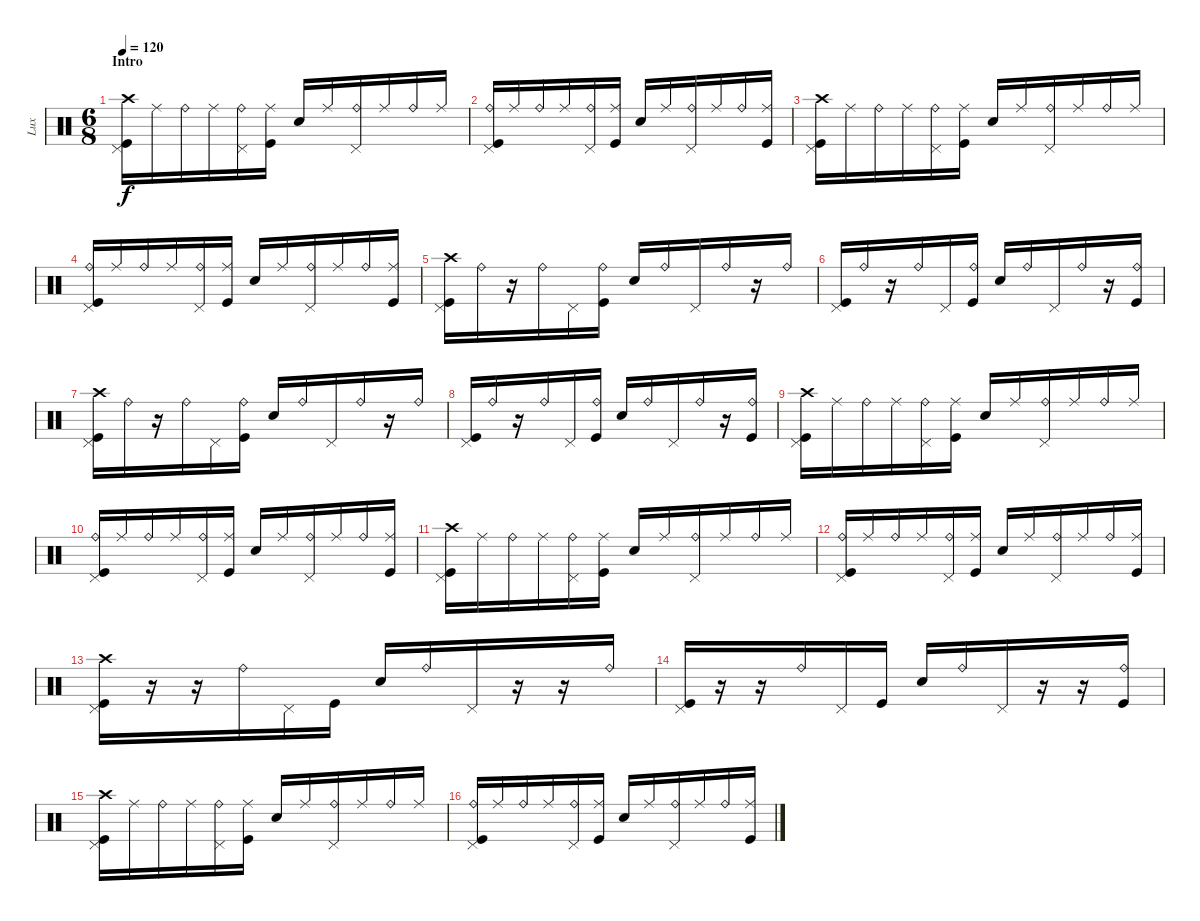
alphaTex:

\track ("Lux" "Lux") {solo instrument percussion}
\staff {score}
\articulation defaults
\ts (6 8)
\section ("" "Intro")
\tempo 120
\clef neutral
\ks c
("Crash high (hit)" "Pedal Hi-Hat (hit)" "Kick (hit)").16{dy f} "Ride (middle)".16 "Ride (bell)".16 "Ride (middle)".16 ("Ride (bell)" "Pedal Hi-Hat (hit)").16 ("Ride (middle)" "Kick (hit)").16 "Snare (hit) 2".16 "Ride (middle)".16 ("Ride (bell)" "Pedal Hi-Hat (hit)").16 "Ride (middle)".16 "Ride (bell)".16 "Ride (middle)".16 |
("Ride (bell)" "Pedal Hi-Hat (hit)" "Kick (hit)").16 "Ride (middle)".16 "Ride (bell)".16 "Ride (middle)".16 ("Ride (bell)" "Pedal Hi-Hat (hit)").16 ("Ride (middle)" "Kick (hit)").16 "Snare (hit) 2".16 "Ride (middle)".16 ("Ride (bell)" "Pedal Hi-Hat (hit)").16 "Ride (middle)".16 "Ride (bell)".16 ("Ride (middle)" "Kick (hit)").16 |
("Crash high (hit)" "Pedal Hi-Hat (hit)" "Kick (hit)").16 "Ride (middle)".16 "Ride (bell)".16 "Ride (middle)".16 ("Ride (bell)" "Pedal Hi-Hat (hit)").16 ("Ride (middle)" "Kick (hit)").16 "Snare (hit) 2".16 "Ride (middle)".16 ("Ride (bell)" "Pedal Hi-Hat (hit)").16 "Ride (middle)".16 "Ride (bell)".16 "Ride (middle)".16 |
("Ride (bell)" "Pedal Hi-Hat (hit)" "Kick (hit)").16 "Ride (middle)".16 "Ride (bell)".16 "Ride (middle)".16 ("Ride (bell)" "Pedal Hi-Hat (hit)").16 ("Ride (middle)" "Kick (hit)").16 "Snare (hit) 2".16 "Ride (middle)".16 ("Ride (bell)" "Pedal Hi-Hat (hit)").16 "Ride (middle)".16 "Ride (bell)".16 ("Ride (middle)" "Kick (hit)").16 |
("Crash high (hit)" "Pedal Hi-Hat (hit)" "Kick (hit)").16 "Ride (bell)".16 r.16 "Ride (bell)".16 "Pedal Hi-Hat (hit)".16 ("Ride (bell)" "Kick (hit)").16 "Snare (hit) 2".16 "Ride (bell)".16 "Pedal Hi-Hat (hit)".16 "Ride (bell)".16 r.16 "Ride (bell)".16 |
("Pedal Hi-Hat (hit)" "Kick (hit)").16 "Ride (bell)".16 r.16 "Ride (bell)".16 "Pedal Hi-Hat (hit)".16 ("Ride (bell)" "Kick (hit)").16 "Snare (hit) 2".16 "Ride (bell)".16 "Pedal Hi-Hat (hit)".16 "Ride (bell)".16 r.16 ("Ride (bell)" "Kick (hit)").16 |
("Crash high (hit)" "Pedal Hi-Hat (hit)" "Kick (hit)").16 "Ride (bell)".16 r.16 "Ride (bell)".16 "Pedal Hi-Hat (hit)".16 ("Ride (bell)" "Kick (hit)").16 "Snare (hit) 2".16 "Ride (bell)".16 "Pedal Hi-Hat (hit)".16 "Ride (bell)".16 r.16 "Ride (bell)".16 |
("Pedal Hi-Hat (hit)" "Kick (hit)").16 "Ride (bell)".16 r.16 "Ride (bell)".16 "Pedal Hi-Hat (hit)".16 ("Ride (bell)" "Kick (hit)").16 "Snare (hit) 2".16 "Ride (bell)".16 "Pedal Hi-Hat (hit)".16 "Ride (bell)".16 r.16 ("Ride (bell)" "Kick (hit)").16 |
("Crash high (hit)" "Pedal Hi-Hat (hit)" "Kick (hit)").16 "Ride (middle)".16 "Ride (bell)".16 "Ride (middle)".16 ("Ride (bell)" "Pedal Hi-Hat (hit)").16 ("Ride (middle)" "Kick (hit)").16 "Snare (hit) 2".16 "Ride (middle)".16 ("Ride (bell)" "Pedal Hi-Hat (hit)").16 "Ride (middle)".16 "Ride (bell)".16 "Ride (middle)".16 |
("Ride (bell)" "Pedal Hi-Hat (hit)" "Kick (hit)").16 "Ride (middle)".16 "Ride (bell)".16 "Ride (middle)".16 ("Ride (bell)" "Pedal Hi-Hat (hit)").16 ("Ride (middle)" "Kick (hit)").16 "Snare (hit) 2".16 "Ride (middle)".16 ("Ride (bell)" "Pedal Hi-Hat (hit)").16 "Ride (middle)".16 "Ride (bell)".16 ("Ride (middle)" "Kick (hit)").16 |
("Crash high (hit)" "Pedal Hi-Hat (hit)" "Kick (hit)").16 "Ride (middle)".16 "Ride (bell)".16 "Ride (middle)".16 ("Ride (bell)" "Pedal Hi-Hat (hit)").16 ("Ride (middle)" "Kick (hit)").16 "Snare (hit) 2".16 "Ride (middle)".16 ("Ride (bell)" "Pedal Hi-Hat (hit)").16 "Ride (middle)".16 "Ride (bell)".16 "Ride (middle)".16 |
("Ride (bell)" "Pedal Hi-Hat (hit)" "Kick (hit)").16 "Ride (middle)".16 "Ride (bell)".16 "Ride (middle)".16 ("Ride (bell)" "Pedal Hi-Hat (hit)").16 ("Ride (middle)" "Kick (hit)").16 "Snare (hit) 2".16 "Ride (middle)".16 ("Ride (bell)" "Pedal Hi-Hat (hit)").16 "Ride (middle)".16 "Ride (bell)".16 ("Ride (middle)" "Kick (hit)").16 |
("Crash high (hit)" "Pedal Hi-Hat (hit)" "Kick (hit)").16 r.16 r.16 "Ride (bell)".16 "Pedal Hi-Hat (hit)".16 "Kick (hit)".16 "Snare (hit) 2".16 "Ride (bell)".16 "Pedal Hi-Hat (hit)".16 r.16 r.16 "Ride (bell)".16 |
("Pedal Hi-Hat (hit)" "Kick (hit)").16 r.16 r.16 "Ride (bell)".16 "Pedal Hi-Hat (hit)".16 "Kick (hit)".16 "Snare (hit) 2".16 "Ride (bell)".16 "Pedal Hi-Hat (hit)".16 r.16 r.16 ("Ride (bell)" "Kick (hit)").16 |
("Crash high (hit)" "Pedal Hi-Hat (hit)" "Kick (hit)").16 "Ride (middle)".16 "Ride (bell)".16 "Ride (middle)".16 ("Ride (bell)" "Pedal Hi-Hat (hit)").16 ("Ride (middle)" "Kick (hit)").16 "Snare (hit) 2".16 "Ride (middle)".16 ("Ride (bell)" "Pedal Hi-Hat (hit)").16 "Ride (middle)".16 "Ride (bell)".16 "Ride (middle)".16 |
("Ride (bell)" "Pedal Hi-Hat (hit)" "Kick (hit)").16 "Ride (middle)".16 "Ride (bell)".16 "Ride (middle)".16 ("Ride (bell)" "Pedal Hi-Hat (hit)").16 ("Ride (middle)" "Kick (hit)").16 "Snare (hit) 2".16 "Ride (middle)".16 ("Ride (bell)" "Pedal Hi-Hat (hit)").16 "Ride (middle)".16 "Ride (bell)".16 ("Ride (middle)" "Kick (hit)").16
